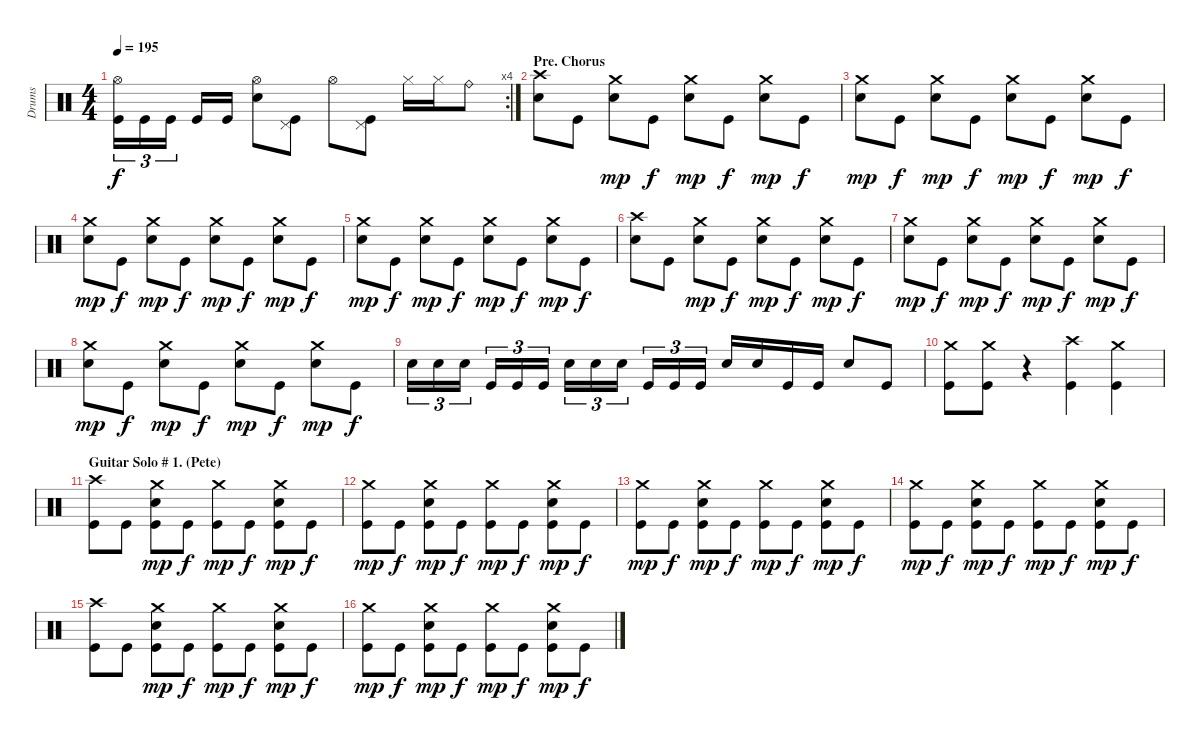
\track ("Drums" "Drums") {instrument percussion}
\staff {score}
\articulation defaults
\rc 4
\ts (4 4)
\tempo 195
\clef neutral
\ks c
("Hi-Hat (open)" "Kick (hit)").16{tu (3 2) dy f} "Kick (hit)".16{tu (3 2)} "Kick (hit)".16{tu (3 2)} "Kick (hit)".16 "Kick (hit)".16 ("Hi-Hat (open)" "Electric Snare (hit)").8 ("Pedal Hi-Hat (hit)" "Kick (hit)").8 "Hi-Hat (open)".8 ("Pedal Hi-Hat (hit)" "Kick (hit)").8 "Hi-Hat (closed)".16 "Hi-Hat (closed)".16 "Ride (bell)".8 |
\section ("" "Pre. Chorus")
("Crash high (hit)" "Electric Snare (hit)").8 "Kick (hit)".8 ("Crash medium (hit)" "Electric Snare (hit)").8{dy mp} "Kick (hit)".8{dy f} ("Crash medium (hit)" "Electric Snare (hit)").8{dy mp} "Kick (hit)".8{dy f} ("Crash medium (hit)" "Electric Snare (hit)").8{dy mp} "Kick (hit)".8{dy f} |
("Crash medium (hit)" "Electric Snare (hit)").8{dy mp} "Kick (hit)".8{dy f} ("Crash medium (hit)" "Electric Snare (hit)").8{dy mp} "Kick (hit)".8{dy f} ("Crash medium (hit)" "Electric Snare (hit)").8{dy mp} "Kick (hit)".8{dy f} ("Crash medium (hit)" "Electric Snare (hit)").8{dy mp} "Kick (hit)".8{dy f} |
("Crash medium (hit)" "Electric Snare (hit)").8{dy mp} "Kick (hit)".8{dy f} ("Crash medium (hit)" "Electric Snare (hit)").8{dy mp} "Kick (hit)".8{dy f} ("Crash medium (hit)" "Electric Snare (hit)").8{dy mp} "Kick (hit)".8{dy f} ("Crash medium (hit)" "Electric Snare (hit)").8{dy mp} "Kick (hit)".8{dy f} |
("Crash medium (hit)" "Electric Snare (hit)").8{dy mp} "Kick (hit)".8{dy f} ("Crash medium (hit)" "Electric Snare (hit)").8{dy mp} "Kick (hit)".8{dy f} ("Crash medium (hit)" "Electric Snare (hit)").8{dy mp} "Kick (hit)".8{dy f} ("Crash medium (hit)" "Electric Snare (hit)").8{dy mp} "Kick (hit)".8{dy f} |
("Crash high (hit)" "Electric Snare (hit)").8 "Kick (hit)".8 ("Crash medium (hit)" "Electric Snare (hit)").8{dy mp} "Kick (hit)".8{dy f} ("Crash medium (hit)" "Electric Snare (hit)").8{dy mp} "Kick (hit)".8{dy f} ("Crash medium (hit)" "Electric Snare (hit)").8{dy mp} "Kick (hit)".8{dy f} |
("Crash medium (hit)" "Electric Snare (hit)").8{dy mp} "Kick (hit)".8{dy f} ("Crash medium (hit)" "Electric Snare (hit)").8{dy mp} "Kick (hit)".8{dy f} ("Crash medium (hit)" "Electric Snare (hit)").8{dy mp} "Kick (hit)".8{dy f} ("Crash medium (hit)" "Electric Snare (hit)").8{dy mp} "Kick (hit)".8{dy f} |
("Crash medium (hit)" "Electric Snare (hit)").8{dy mp} "Kick (hit)".8{dy f} ("Crash medium (hit)" "Electric Snare (hit)").8{dy mp} "Kick (hit)".8{dy f} ("Crash medium (hit)" "Electric Snare (hit)").8{dy mp} "Kick (hit)".8{dy f} ("Crash medium (hit)" "Electric Snare (hit)").8{dy mp} "Kick (hit)".8{dy f} |
"Electric Snare (hit)".16{tu (3 2)} "Electric Snare (hit)".16{tu (3 2)} "Electric Snare (hit)".16{tu (3 2)} "Kick (hit)".16{tu (3 2)} "Kick (hit)".16{tu (3 2)} "Kick (hit)".16{tu (3 2)} "Electric Snare (hit)".16{tu (3 2)} "Electric Snare (hit)".16{tu (3 2)} "Electric Snare (hit)".16{tu (3 2)} "Kick (hit)".16{tu (3 2)} "Kick (hit)".16{tu (3 2)} "Kick (hit)".16{tu (3 2)} "Electric Snare (hit)".16 "Electric Snare (hit)".16 "Kick (hit)".16 "Kick (hit)".16 "Electric Snare (hit)".8 "Kick (hit)".8 |
("Crash medium (hit)" "Kick (hit)").8 ("Crash medium (hit)" "Kick (hit)").8 r.4 ("Crash high (hit)" "Kick (hit)").4 ("Crash medium (hit)" "Kick (hit)").4 |
\section ("" "Guitar Solo # 1. (Pete)")
("Crash high (hit)" "Kick (hit)").8 "Kick (hit)".8 ("Crash medium (hit)" "Electric Snare (hit)" "Kick (hit)").8{dy mp} "Kick (hit)".8{dy f} ("Crash medium (hit)" "Kick (hit)").8{dy mp} "Kick (hit)".8{dy f} ("Crash medium (hit)" "Electric Snare (hit)" "Kick (hit)").8{dy mp} "Kick (hit)".8{dy f} |
("Crash medium (hit)" "Kick (hit)").8{dy mp} "Kick (hit)".8{dy f} ("Crash medium (hit)" "Electric Snare (hit)" "Kick (hit)").8{dy mp} "Kick (hit)".8{dy f} ("Crash medium (hit)" "Kick (hit)").8{dy mp} "Kick (hit)".8{dy f} ("Crash medium (hit)" "Electric Snare (hit)" "Kick (hit)").8{dy mp} "Kick (hit)".8{dy f} |
("Crash medium (hit)" "Kick (hit)").8{dy mp} "Kick (hit)".8{dy f} ("Crash medium (hit)" "Electric Snare (hit)" "Kick (hit)").8{dy mp} "Kick (hit)".8{dy f} ("Crash medium (hit)" "Kick (hit)").8{dy mp} "Kick (hit)".8{dy f} ("Crash medium (hit)" "Electric Snare (hit)" "Kick (hit)").8{dy mp} "Kick (hit)".8{dy f} |
("Crash medium (hit)" "Kick (hit)").8{dy mp} "Kick (hit)".8{dy f} ("Crash medium (hit)" "Electric Snare (hit)" "Kick (hit)").8{dy mp} "Kick (hit)".8{dy f} ("Crash medium (hit)" "Kick (hit)").8{dy mp} "Kick (hit)".8{dy f} ("Crash medium (hit)" "Electric Snare (hit)" "Kick (hit)").8{dy mp} "Kick (hit)".8{dy f} |
("Crash high (hit)" "Kick (hit)").8 "Kick (hit)".8 ("Crash medium (hit)" "Electric Snare (hit)" "Kick (hit)").8{dy mp} "Kick (hit)".8{dy f} ("Crash medium (hit)" "Kick (hit)").8{dy mp} "Kick (hit)".8{dy f} ("Crash medium (hit)" "Electric Snare (hit)" "Kick (hit)").8{dy mp} "Kick (hit)".8{dy f} |
("Crash medium (hit)" "Kick (hit)").8{dy mp} "Kick (hit)".8{dy f} ("Crash medium (hit)" "Electric Snare (hit)" "Kick (hit)").8{dy mp} "Kick (hit)".8{dy f} ("Crash medium (hit)" "Kick (hit)").8{dy mp} "Kick (hit)".8{dy f} ("Crash medium (hit)" "Electric Snare (hit)" "Kick (hit)").8{dy mp} "Kick (hit)".8{dy f}
